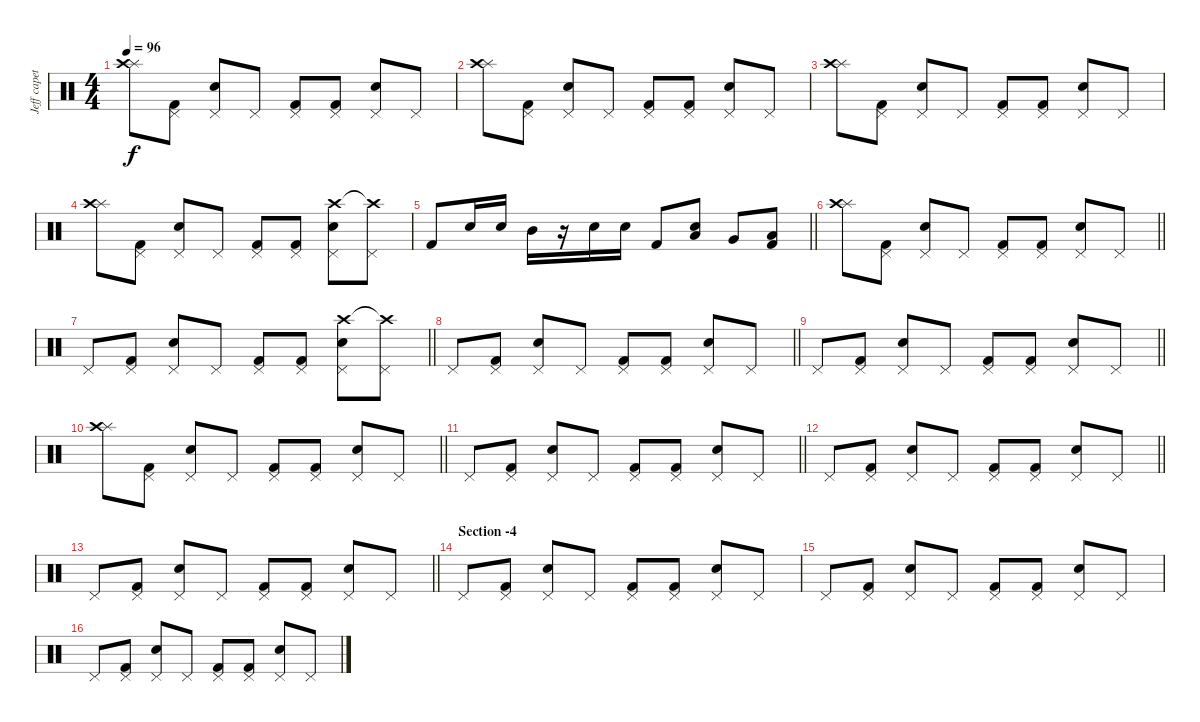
\track ("Jeff capetally" "Jeff capet") {instrument percussion}
\staff {score}
\articulation defaults
\ts (4 4)
\tempo 96
\clef neutral
\ks c
("Splash (hit)" "Crash high (hit)").8{dy f} ("Pedal Hi-Hat (hit)" "Kick (hit) 2").8 ("Pedal Hi-Hat (hit)" "Snare (hit) 2").8 "Pedal Hi-Hat (hit)".8 ("Pedal Hi-Hat (hit)" "Kick (hit) 2").8 ("Pedal Hi-Hat (hit)" "Kick (hit) 2").8 ("Pedal Hi-Hat (hit)" "Snare (hit) 2").8 "Pedal Hi-Hat (hit)".8 |
("Splash (hit)" "Crash high (hit)").8 ("Pedal Hi-Hat (hit)" "Kick (hit) 2").8 ("Pedal Hi-Hat (hit)" "Snare (hit) 2").8 "Pedal Hi-Hat (hit)".8 ("Pedal Hi-Hat (hit)" "Kick (hit) 2").8 ("Pedal Hi-Hat (hit)" "Kick (hit) 2").8 ("Pedal Hi-Hat (hit)" "Snare (hit) 2").8 "Pedal Hi-Hat (hit)".8 |
("Splash (hit)" "Crash high (hit)").8 ("Pedal Hi-Hat (hit)" "Kick (hit) 2").8 ("Pedal Hi-Hat (hit)" "Snare (hit) 2").8 "Pedal Hi-Hat (hit)".8 ("Pedal Hi-Hat (hit)" "Kick (hit) 2").8 ("Pedal Hi-Hat (hit)" "Kick (hit) 2").8 ("Pedal Hi-Hat (hit)" "Snare (hit) 2").8 "Pedal Hi-Hat (hit)".8 |
("Splash (hit)" "Crash high (hit)").8 ("Pedal Hi-Hat (hit)" "Kick (hit) 2").8 ("Pedal Hi-Hat (hit)" "Snare (hit) 2").8 "Pedal Hi-Hat (hit)".8 ("Pedal Hi-Hat (hit)" "Kick (hit) 2").8 ("Pedal Hi-Hat (hit)" "Kick (hit) 2").8 ("Pedal Hi-Hat (hit)" "Crash high (hit)" "Snare (hit) 2").8 ("Pedal Hi-Hat (hit)" "Crash high (hit)"{t}).8 |
\barLineRight lightlight "Kick (hit) 2".8 "Snare (hit) 2".16 "Snare (hit) 2".16 "Mid Tom (hit)".16
r.16 "Snare (hit) 2".16 "Snare (hit) 2".16 "Kick (hit) 2".8 ("Low Tom (hit)" "Snare (hit) 2").8 "Very Low Tom (hit)".8 ("Low Tom (hit)" "Kick (hit) 2").8 |
\barLineRight lightlight
("Splash (hit)" "Crash high (hit)").8 ("Pedal Hi-Hat (hit)" "Kick (hit) 2").8 ("Pedal Hi-Hat (hit)" "Snare (hit) 2").8 "Pedal Hi-Hat (hit)".8 ("Pedal Hi-Hat (hit)" "Kick (hit) 2").8 ("Pedal Hi-Hat (hit)" "Kick (hit) 2").8 ("Pedal Hi-Hat (hit)" "Snare (hit) 2").8 "Pedal Hi-Hat (hit)".8 |
\barLineRight lightlight "Pedal Hi-Hat (hit)".8
("Pedal Hi-Hat (hit)" "Kick (hit) 2").8 ("Pedal Hi-Hat (hit)" "Snare (hit) 2").8 "Pedal Hi-Hat (hit)".8 ("Pedal Hi-Hat (hit)" "Kick (hit) 2").8 ("Pedal Hi-Hat (hit)" "Kick (hit) 2").8 ("Pedal Hi-Hat (hit)" "Crash high (hit)" "Snare (hit) 2").8 ("Pedal Hi-Hat (hit)" "Crash high (hit)"{t}).8 |
\barLineRight lightlight "Pedal Hi-Hat (hit)".8
("Pedal Hi-Hat (hit)" "Kick (hit) 2").8 ("Pedal Hi-Hat (hit)" "Snare (hit) 2").8 "Pedal Hi-Hat (hit)".8 ("Pedal Hi-Hat (hit)" "Kick (hit) 2").8 ("Pedal Hi-Hat (hit)" "Kick (hit) 2").8 ("Pedal Hi-Hat (hit)" "Snare (hit) 2").8 "Pedal Hi-Hat (hit)".8 |
\barLineRight lightlight "Pedal Hi-Hat (hit)".8
("Pedal Hi-Hat (hit)" "Kick (hit) 2").8 ("Pedal Hi-Hat (hit)" "Snare (hit) 2").8 "Pedal Hi-Hat (hit)".8 ("Pedal Hi-Hat (hit)" "Kick (hit) 2").8 ("Pedal Hi-Hat (hit)" "Kick (hit) 2").8 ("Pedal Hi-Hat (hit)" "Snare (hit) 2").8 "Pedal Hi-Hat (hit)".8 |
\barLineRight lightlight
("Splash (hit)" "Crash high (hit)").8 ("Pedal Hi-Hat (hit)" "Kick (hit) 2").8 ("Pedal Hi-Hat (hit)" "Snare (hit) 2").8 "Pedal Hi-Hat (hit)".8 ("Pedal Hi-Hat (hit)" "Kick (hit) 2").8 ("Pedal Hi-Hat (hit)" "Kick (hit) 2").8 ("Pedal Hi-Hat (hit)" "Snare (hit) 2").8 "Pedal Hi-Hat (hit)".8 |
\barLineRight lightlight "Pedal Hi-Hat (hit)".8
("Pedal Hi-Hat (hit)" "Kick (hit) 2").8 ("Pedal Hi-Hat (hit)" "Snare (hit) 2").8 "Pedal Hi-Hat (hit)".8 ("Pedal Hi-Hat (hit)" "Kick (hit) 2").8 ("Pedal Hi-Hat (hit)" "Kick (hit) 2").8 ("Pedal Hi-Hat (hit)" "Snare (hit) 2").8 "Pedal Hi-Hat (hit)".8 |
\barLineRight lightlight "Pedal Hi-Hat (hit)".8
("Pedal Hi-Hat (hit)" "Kick (hit) 2").8 ("Pedal Hi-Hat (hit)" "Snare (hit) 2").8 "Pedal Hi-Hat (hit)".8 ("Pedal Hi-Hat (hit)" "Kick (hit) 2").8 ("Pedal Hi-Hat (hit)" "Kick (hit) 2").8 ("Pedal Hi-Hat (hit)" "Snare (hit) 2").8 "Pedal Hi-Hat (hit)".8 |
\barLineRight lightlight "Pedal Hi-Hat (hit)".8
("Pedal Hi-Hat (hit)" "Kick (hit) 2").8 ("Pedal Hi-Hat (hit)" "Snare (hit) 2").8 "Pedal Hi-Hat (hit)".8 ("Pedal Hi-Hat (hit)" "Kick (hit) 2").8 ("Pedal Hi-Hat (hit)" "Kick (hit) 2").8 ("Pedal Hi-Hat (hit)" "Snare (hit) 2").8 "Pedal Hi-Hat (hit)".8 |
\section ("" "Section -4")
"Pedal Hi-Hat (hit)".8 ("Pedal Hi-Hat (hit)" "Kick (hit) 2").8 ("Pedal Hi-Hat (hit)" "Snare (hit) 2").8 "Pedal Hi-Hat (hit)".8 ("Pedal Hi-Hat (hit)" "Kick (hit) 2").8 ("Pedal Hi-Hat (hit)" "Kick (hit) 2").8 ("Pedal Hi-Hat (hit)" "Snare (hit) 2").8 "Pedal Hi-Hat (hit)".8 |
"Pedal Hi-Hat (hit)".8 ("Pedal Hi-Hat (hit)" "Kick (hit) 2").8 ("Pedal Hi-Hat (hit)" "Snare (hit) 2").8 "Pedal Hi-Hat (hit)".8 ("Pedal Hi-Hat (hit)" "Kick (hit) 2").8 ("Pedal Hi-Hat (hit)" "Kick (hit) 2").8 ("Pedal Hi-Hat (hit)" "Snare (hit) 2").8 "Pedal Hi-Hat (hit)".8 |
"Pedal Hi-Hat (hit)".8 ("Pedal Hi-Hat (hit)" "Kick (hit) 2").8 ("Pedal Hi-Hat (hit)" "Snare (hit) 2").8 "Pedal Hi-Hat (hit)".8 ("Pedal Hi-Hat (hit)" "Kick (hit) 2").8 ("Pedal Hi-Hat (hit)" "Kick (hit) 2").8 ("Pedal Hi-Hat (hit)" "Snare (hit) 2").8 "Pedal Hi-Hat (hit)".8
